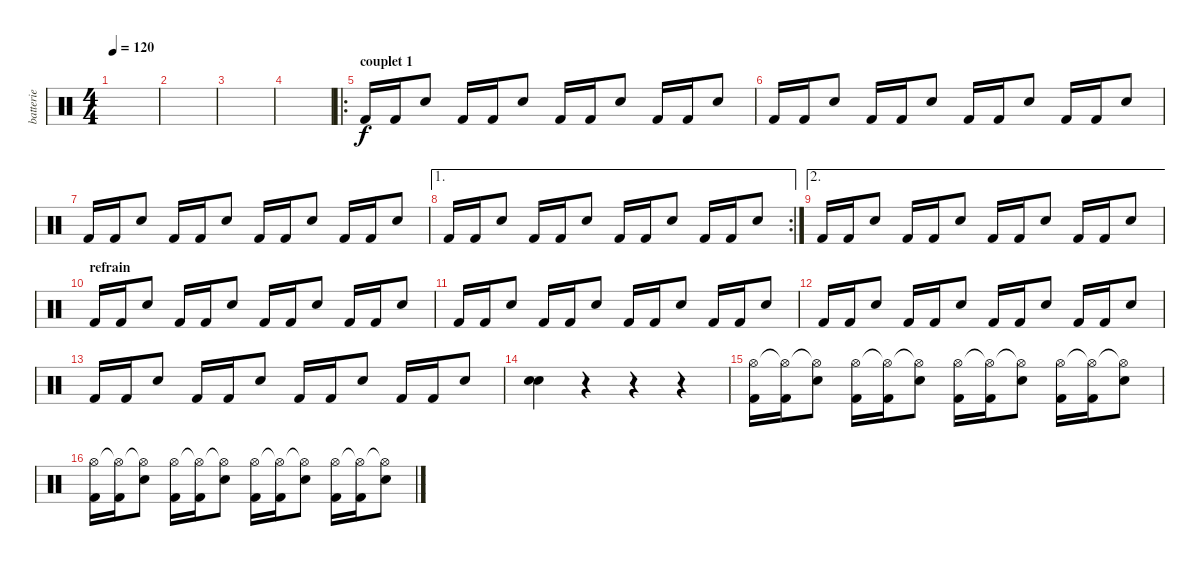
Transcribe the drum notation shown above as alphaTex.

\track ("batterie" "batterie") {instrument percussion}
\staff {score}
\articulation defaults
\ts (4 4)
\tempo 120
\clef neutral
\ks c
|
|
|
|
\ro
\section ("" "couplet 1")
"Kick (hit) 2".16 "Kick (hit) 2".16 "Electric Snare (hit)".8 "Kick (hit) 2".16 "Kick (hit) 2".16 "Electric Snare (hit)".8 "Kick (hit) 2".16 "Kick (hit) 2".16 "Electric Snare (hit)".8 "Kick (hit) 2".16 "Kick (hit) 2".16 "Electric Snare (hit)".8 |
"Kick (hit) 2".16 "Kick (hit) 2".16 "Electric Snare (hit)".8 "Kick (hit) 2".16 "Kick (hit) 2".16 "Electric Snare (hit)".8 "Kick (hit) 2".16 "Kick (hit) 2".16 "Electric Snare (hit)".8 "Kick (hit) 2".16 "Kick (hit) 2".16 "Electric Snare (hit)".8 |
"Kick (hit) 2".16 "Kick (hit) 2".16 "Electric Snare (hit)".8 "Kick (hit) 2".16 "Kick (hit) 2".16 "Electric Snare (hit)".8 "Kick (hit) 2".16 "Kick (hit) 2".16 "Electric Snare (hit)".8 "Kick (hit) 2".16 "Kick (hit) 2".16 "Electric Snare (hit)".8 |
\ae 1
\rc 2 "Kick (hit) 2".16 "Kick (hit) 2".16 "Electric Snare (hit)".8 "Kick (hit) 2".16 "Kick (hit) 2".16 "Electric Snare (hit)".8 "Kick (hit) 2".16 "Kick (hit) 2".16 "Electric Snare (hit)".8 "Kick (hit) 2".16 "Kick (hit) 2".16 "Electric Snare (hit)".8
|
\ae 2 "Kick (hit) 2".16 "Kick (hit) 2".16 "Electric Snare (hit)".8 "Kick (hit) 2".16 "Kick (hit) 2".16 "Electric Snare (hit)".8 "Kick (hit) 2".16 "Kick (hit) 2".16 "Electric Snare (hit)".8 "Kick (hit) 2".16 "Kick (hit) 2".16 "Electric Snare (hit)".8
|
\section ("" "refrain")
"Kick (hit) 2".16 "Kick (hit) 2".16 "Electric Snare (hit)".8 "Kick (hit) 2".16 "Kick (hit) 2".16 "Electric Snare (hit)".8 "Kick (hit) 2".16 "Kick (hit) 2".16 "Electric Snare (hit)".8 "Kick (hit) 2".16 "Kick (hit) 2".16 "Electric Snare (hit)".8 |
"Kick (hit) 2".16 "Kick (hit) 2".16 "Electric Snare (hit)".8 "Kick (hit) 2".16 "Kick (hit) 2".16 "Electric Snare (hit)".8 "Kick (hit) 2".16 "Kick (hit) 2".16 "Electric Snare (hit)".8 "Kick (hit) 2".16 "Kick (hit) 2".16 "Electric Snare (hit)".8 |
"Kick (hit) 2".16 "Kick (hit) 2".16 "Electric Snare (hit)".8 "Kick (hit) 2".16 "Kick (hit) 2".16 "Electric Snare (hit)".8 "Kick (hit) 2".16 "Kick (hit) 2".16 "Electric Snare (hit)".8 "Kick (hit) 2".16 "Kick (hit) 2".16 "Electric Snare (hit)".8 |
"Kick (hit) 2".16 "Kick (hit) 2".16 "Electric Snare (hit)".8 "Kick (hit) 2".16 "Kick (hit) 2".16 "Electric Snare (hit)".8 "Kick (hit) 2".16 "Kick (hit) 2".16 "Electric Snare (hit)".8 "Kick (hit) 2".16 "Kick (hit) 2".16 "Electric Snare (hit)".8 |
("Electric Snare (hit)" "Snare (hit) 2").4 r.4 r.4 r.4 |
("Hi-Hat (open)" "Kick (hit) 2").16 ("Hi-Hat (open)"{t} "Kick (hit) 2").16 ("Hi-Hat (open)"{t} "Electric Snare (hit)").8 ("Hi-Hat (open)" "Kick (hit) 2").16 ("Hi-Hat (open)"{t} "Kick (hit) 2").16 ("Hi-Hat (open)"{t} "Electric Snare (hit)").8 ("Hi-Hat (open)" "Kick (hit) 2").16 ("Hi-Hat (open)"{t} "Kick (hit) 2").16 ("Hi-Hat (open)"{t} "Electric Snare (hit)").8 ("Hi-Hat (open)" "Kick (hit) 2").16 ("Hi-Hat (open)"{t} "Kick (hit) 2").16 ("Hi-Hat (open)"{t} "Electric Snare (hit)").8 |
("Hi-Hat (open)" "Kick (hit) 2").16 ("Hi-Hat (open)"{t} "Kick (hit) 2").16 ("Hi-Hat (open)"{t} "Electric Snare (hit)").8 ("Hi-Hat (open)" "Kick (hit) 2").16 ("Hi-Hat (open)"{t} "Kick (hit) 2").16 ("Hi-Hat (open)"{t} "Electric Snare (hit)").8 ("Hi-Hat (open)" "Kick (hit) 2").16 ("Hi-Hat (open)"{t} "Kick (hit) 2").16 ("Hi-Hat (open)"{t} "Electric Snare (hit)").8 ("Hi-Hat (open)" "Kick (hit) 2").16 ("Hi-Hat (open)"{t} "Kick (hit) 2").16 ("Hi-Hat (open)"{t} "Electric Snare (hit)").8
